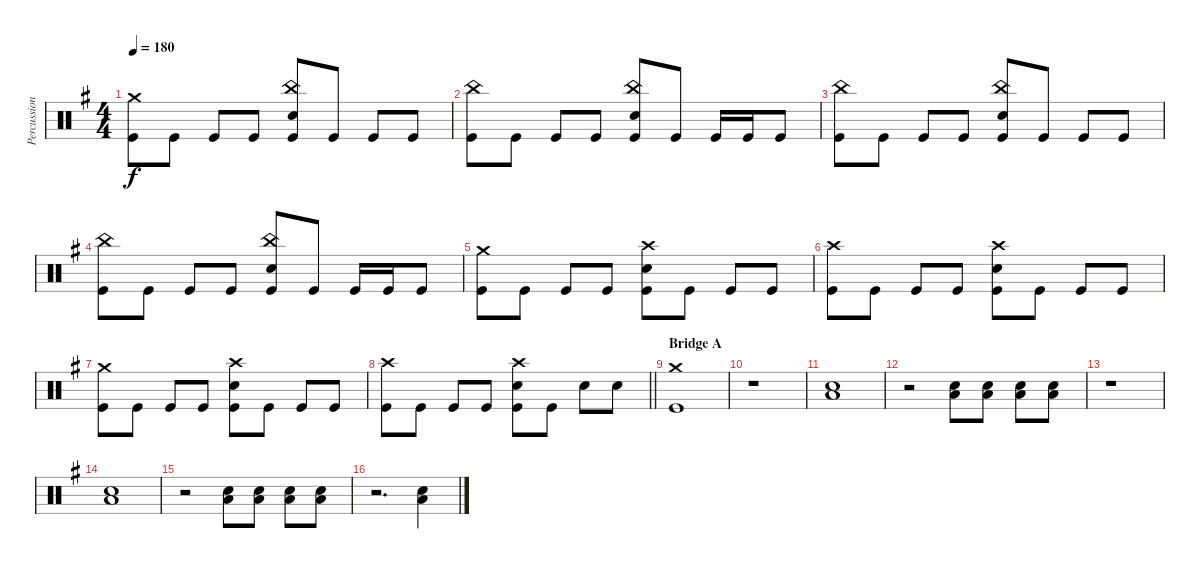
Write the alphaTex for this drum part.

\track ("Percussion" "Percussion") {instrument percussion}
\staff {score}
\articulation defaults
\ts (4 4)
\tempo 180
\clef neutral
\ks g
("Crash medium (hit)" "Kick (hit)").8{dy f} "Kick (hit)".8 "Kick (hit)".8 "Kick (hit)".8 ("China (hit)" "Electric Snare (hit)" "Kick (hit)").8 "Kick (hit)".8 "Kick (hit)".8 "Kick (hit)".8 |
("China (hit)" "Kick (hit)").8 "Kick (hit)".8 "Kick (hit)".8 "Kick (hit)".8 ("China (hit)" "Electric Snare (hit)" "Kick (hit)").8 "Kick (hit)".8 "Kick (hit)".16 "Kick (hit)".16 "Kick (hit)".8 |
("China (hit)" "Kick (hit)").8 "Kick (hit)".8 "Kick (hit)".8 "Kick (hit)".8 ("China (hit)" "Electric Snare (hit)" "Kick (hit)").8 "Kick (hit)".8 "Kick (hit)".8 "Kick (hit)".8 |
("China (hit)" "Kick (hit)").8 "Kick (hit)".8 "Kick (hit)".8 "Kick (hit)".8 ("China (hit)" "Electric Snare (hit)" "Kick (hit)").8 "Kick (hit)".8 "Kick (hit)".16 "Kick (hit)".16 "Kick (hit)".8 |
("Crash medium (hit)" "Kick (hit)").8 "Kick (hit)".8 "Kick (hit)".8 "Kick (hit)".8 ("Crash high (hit)" "Electric Snare (hit)" "Kick (hit)").8 "Kick (hit)".8 "Kick (hit)".8 "Kick (hit)".8 |
("Crash high (hit)" "Kick (hit)").8 "Kick (hit)".8 "Kick (hit)".8 "Kick (hit)".8 ("Crash high (hit)" "Electric Snare (hit)" "Kick (hit)").8 "Kick (hit)".8 "Kick (hit)".8 "Kick (hit)".8 |
("Crash medium (hit)" "Kick (hit)").8 "Kick (hit)".8 "Kick (hit)".8 "Kick (hit)".8 ("Crash high (hit)" "Electric Snare (hit)" "Kick (hit)").8 "Kick (hit)".8 "Kick (hit)".8 "Kick (hit)".8 |
\barLineRight lightlight
("Crash high (hit)" "Kick (hit)").8 "Kick (hit)".8 "Kick (hit)".8 "Kick (hit)".8 ("Crash high (hit)" "Electric Snare (hit)" "Kick (hit)").8 "Kick (hit)".8 "Electric Snare (hit)".8 "Electric Snare (hit)".8 |
\section ("" "Bridge A")
("Crash medium (hit)" "Kick (hit)").1 |
r.1 |
("Low Floor Tom (hit)" "Electric Snare (hit)").1 |
r.2 ("Low Floor Tom (hit)" "Electric Snare (hit)").8 ("Low Floor Tom (hit)" "Electric Snare (hit)").8 ("Low Floor Tom (hit)" "Electric Snare (hit)").8 ("Low Floor Tom (hit)" "Electric Snare (hit)").8 |
r.1 |
("Low Floor Tom (hit)" "Electric Snare (hit)").1 |
r.2 ("Low Floor Tom (hit)" "Electric Snare (hit)").8 ("Low Floor Tom (hit)" "Electric Snare (hit)").8 ("Low Floor Tom (hit)" "Electric Snare (hit)").8 ("Low Floor Tom (hit)" "Electric Snare (hit)").8 |
r.2{d} ("Low Floor Tom (hit)" "Electric Snare (hit)").4
